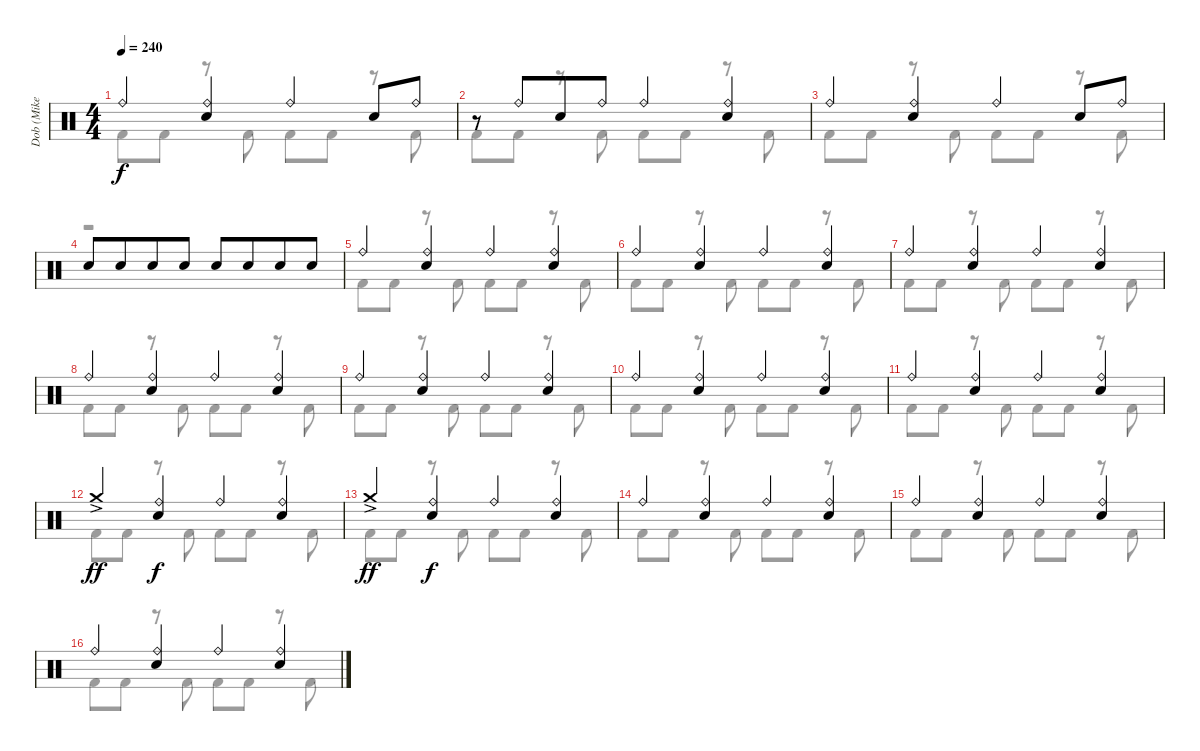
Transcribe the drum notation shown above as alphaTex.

\track ("Dob (Mike Terrana)" "Dob (Mike ") {instrument percussion}
\staff {score}
\articulation defaults
\voice
\ts (4 4)
\tempo 240
\clef neutral
\ks c "Ride (bell)".4{dy f}
("Ride (bell)" "Electric Snare (hit)").4 "Ride (bell)".4 "Electric Snare (hit)".8 "Ride (bell)".8 |
r.8 "Ride (bell)".8{beam merge} "Electric Snare (hit)".8 "Ride (bell)".8 "Ride (bell)".4 ("Ride (bell)" "Electric Snare (hit)").4 |
"Ride (bell)".4 ("Ride (bell)" "Electric Snare (hit)").4 "Ride (bell)".4 "Electric Snare (hit)".8 "Ride (bell)".8 |
"Electric Snare (hit)".8 "Electric Snare (hit)".8{beam merge} "Electric Snare (hit)".8 "Electric Snare (hit)".8 "Electric Snare (hit)".8 "Electric Snare (hit)".8{beam merge} "Electric Snare (hit)".8 "Electric Snare (hit)".8 |
"Ride (bell)".4 ("Ride (bell)" "Electric Snare (hit)").4 "Ride (bell)".4 ("Ride (bell)" "Electric Snare (hit)").4 |
"Ride (bell)".4 ("Ride (bell)" "Electric Snare (hit)").4 "Ride (bell)".4 ("Ride (bell)" "Electric Snare (hit)").4 |
"Ride (bell)".4 ("Ride (bell)" "Electric Snare (hit)").4 "Ride (bell)".4 ("Ride (bell)" "Electric Snare (hit)").4 |
"Ride (bell)".4 ("Ride (bell)" "Electric Snare (hit)").4 "Ride (bell)".4 ("Ride (bell)" "Electric Snare (hit)").4 |
"Ride (bell)".4 ("Ride (bell)" "Electric Snare (hit)").4 "Ride (bell)".4 ("Ride (bell)" "Electric Snare (hit)").4 |
"Ride (bell)".4 ("Ride (bell)" "Electric Snare (hit)").4 "Ride (bell)".4 ("Ride (bell)" "Electric Snare (hit)").4 |
"Ride (bell)".4 ("Ride (bell)" "Electric Snare (hit)").4 "Ride (bell)".4 ("Ride (bell)" "Electric Snare (hit)").4 |
"Crash medium (hit)"{ac}.4{dy ff} ("Ride (bell)" "Electric Snare (hit)").4{dy f} "Ride (bell)".4 ("Ride (bell)" "Electric Snare (hit)").4 |
"Crash medium (hit)"{ac}.4{dy ff} ("Ride (bell)" "Electric Snare (hit)").4{dy f} "Ride (bell)".4 ("Ride (bell)" "Electric Snare (hit)").4 |
"Ride (bell)".4 ("Ride (bell)" "Electric Snare (hit)").4 "Ride (bell)".4 ("Ride (bell)" "Electric Snare (hit)").4 |
"Ride (bell)".4 ("Ride (bell)" "Electric Snare (hit)").4 "Ride (bell)".4 ("Ride (bell)" "Electric Snare (hit)").4 |
"Ride (bell)".4 ("Ride (bell)" "Electric Snare (hit)").4 "Ride (bell)".4 ("Ride (bell)" "Electric Snare (hit)").4
\voice
\clef neutral
\ottava regular
\simile none
\ks c "Kick (hit) 2".8{dy f} "Kick (hit) 2".8
r.8 "Kick (hit) 2".8 "Kick (hit) 2".8 "Kick (hit) 2".8 r.8 "Kick (hit) 2".8 |
"Kick (hit) 2".8 "Kick (hit) 2".8 r.8 "Kick (hit) 2".8 "Kick (hit) 2".8 "Kick (hit) 2".8 r.8 "Kick (hit) 2".8 |
"Kick (hit) 2".8 "Kick (hit) 2".8 r.8 "Kick (hit) 2".8 "Kick (hit) 2".8 "Kick (hit) 2".8 r.8 "Kick (hit) 2".8 |
r.1 |
"Kick (hit) 2".8 "Kick (hit) 2".8 r.8 "Kick (hit) 2".8 "Kick (hit) 2".8 "Kick (hit) 2".8 r.8 "Kick (hit) 2".8 |
"Kick (hit) 2".8 "Kick (hit) 2".8 r.8 "Kick (hit) 2".8 "Kick (hit) 2".8 "Kick (hit) 2".8 r.8 "Kick (hit) 2".8 |
"Kick (hit) 2".8 "Kick (hit) 2".8 r.8 "Kick (hit) 2".8 "Kick (hit) 2".8 "Kick (hit) 2".8 r.8 "Kick (hit) 2".8 |
"Kick (hit) 2".8 "Kick (hit) 2".8 r.8 "Kick (hit) 2".8 "Kick (hit) 2".8 "Kick (hit) 2".8 r.8 "Kick (hit) 2".8 |
"Kick (hit) 2".8 "Kick (hit) 2".8 r.8 "Kick (hit) 2".8 "Kick (hit) 2".8 "Kick (hit) 2".8 r.8 "Kick (hit) 2".8 |
"Kick (hit) 2".8 "Kick (hit) 2".8 r.8 "Kick (hit) 2".8 "Kick (hit) 2".8 "Kick (hit) 2".8 r.8 "Kick (hit) 2".8 |
"Kick (hit) 2".8 "Kick (hit) 2".8 r.8 "Kick (hit) 2".8 "Kick (hit) 2".8 "Kick (hit) 2".8 r.8 "Kick (hit) 2".8 |
"Kick (hit) 2".8 "Kick (hit) 2".8 r.8 "Kick (hit) 2".8 "Kick (hit) 2".8 "Kick (hit) 2".8 r.8 "Kick (hit) 2".8 |
"Kick (hit) 2".8 "Kick (hit) 2".8 r.8 "Kick (hit) 2".8 "Kick (hit) 2".8 "Kick (hit) 2".8 r.8 "Kick (hit) 2".8 |
"Kick (hit) 2".8 "Kick (hit) 2".8 r.8 "Kick (hit) 2".8 "Kick (hit) 2".8 "Kick (hit) 2".8 r.8 "Kick (hit) 2".8 |
"Kick (hit) 2".8 "Kick (hit) 2".8 r.8 "Kick (hit) 2".8 "Kick (hit) 2".8 "Kick (hit) 2".8 r.8 "Kick (hit) 2".8 |
"Kick (hit) 2".8 "Kick (hit) 2".8 r.8 "Kick (hit) 2".8 "Kick (hit) 2".8 "Kick (hit) 2".8 r.8 "Kick (hit) 2".8
